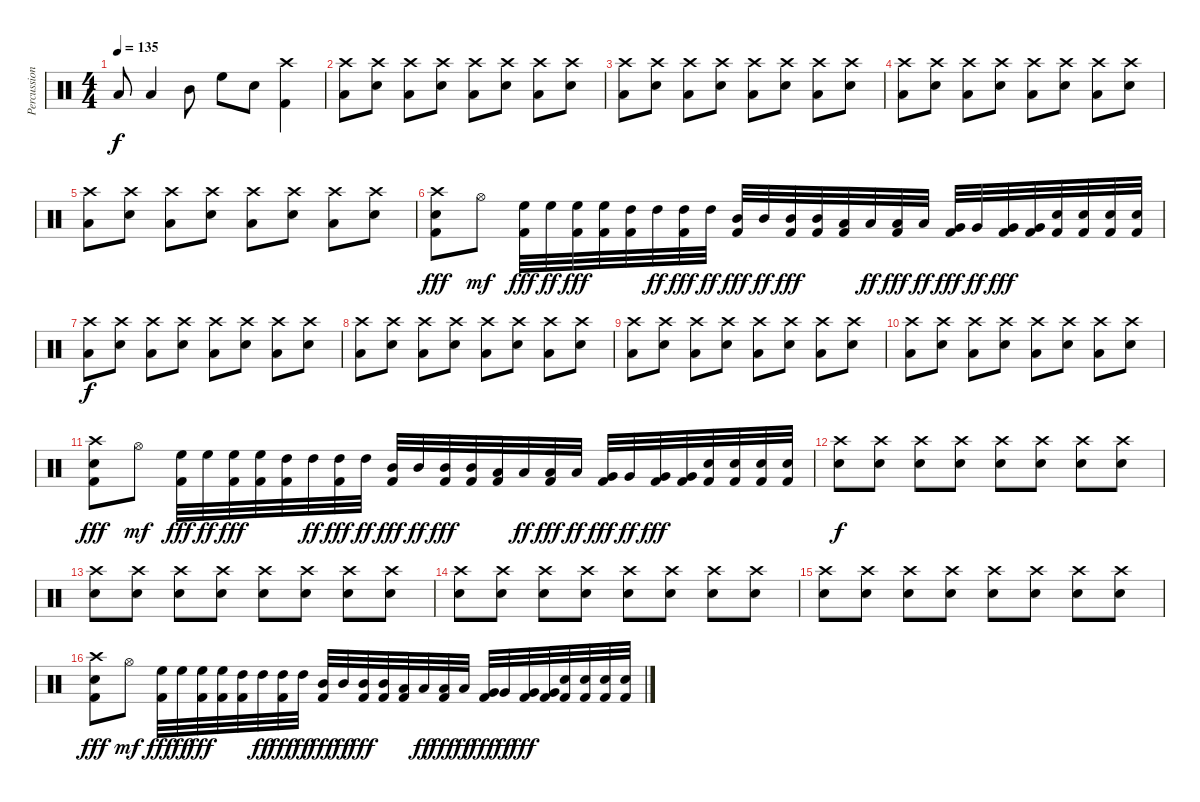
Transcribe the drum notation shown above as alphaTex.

\track ("Percussions" "Percussion") {instrument percussion}
\staff {score}
\articulation defaults
\ts (4 4)
\tempo 135
\clef neutral
\ks c "Low Floor Tom (hit)".8{dy f} "Low Tom (hit)".4 "Mid Tom (hit)".8 "High Floor Tom (hit)".8 "Electric Snare (hit)".8
("Crash high (hit)" "Kick (hit) 2").4 |
("Crash high (hit)" "Low Tom (hit)").8 ("Crash high (hit)" "Electric Snare (hit)").8 ("Crash high (hit)" "Low Tom (hit)").8 ("Crash high (hit)" "Electric Snare (hit)").8 ("Crash high (hit)" "Low Tom (hit)").8 ("Crash high (hit)" "Electric Snare (hit)").8 ("Crash high (hit)" "Low Tom (hit)").8 ("Crash high (hit)" "Electric Snare (hit)").8 |
("Crash high (hit)" "Low Tom (hit)").8 ("Crash high (hit)" "Electric Snare (hit)").8 ("Crash high (hit)" "Low Tom (hit)").8 ("Crash high (hit)" "Electric Snare (hit)").8 ("Crash high (hit)" "Low Tom (hit)").8 ("Crash high (hit)" "Electric Snare (hit)").8 ("Crash high (hit)" "Low Tom (hit)").8 ("Crash high (hit)" "Electric Snare (hit)").8 |
("Crash high (hit)" "Low Tom (hit)").8 ("Crash high (hit)" "Electric Snare (hit)").8 ("Crash high (hit)" "Low Tom (hit)").8 ("Crash high (hit)" "Electric Snare (hit)").8 ("Crash high (hit)" "Low Tom (hit)").8 ("Crash high (hit)" "Electric Snare (hit)").8 ("Crash high (hit)" "Low Tom (hit)").8 ("Crash high (hit)" "Electric Snare (hit)").8 |
("Crash high (hit)" "Low Tom (hit)").8 ("Crash high (hit)" "Electric Snare (hit)").8 ("Crash high (hit)" "Low Tom (hit)").8 ("Crash high (hit)" "Electric Snare (hit)").8 ("Crash high (hit)" "Low Tom (hit)").8 ("Crash high (hit)" "Electric Snare (hit)").8 ("Crash high (hit)" "Low Tom (hit)").8 ("Crash high (hit)" "Electric Snare (hit)").8 |
("Crash high (hit)" "Electric Snare (hit)" "Kick (hit) 2").8{dy fff} "Hi-Hat (open)".8{dy mf} ("High Floor Tom (hit)" "Kick (hit) 2").32{dy fff} "High Floor Tom (hit)".32{dy ff} ("High Floor Tom (hit)" "Kick (hit) 2").32{dy fff} ("High Floor Tom (hit)" "Kick (hit) 2").32 ("High Tom (hit)" "Kick (hit) 2").32 "High Tom (hit)".32{dy ff} ("High Tom (hit)" "Kick (hit) 2").32{dy fff} "High Tom (hit)".32{dy ff} ("Mid Tom (hit)" "Kick (hit) 2").32{dy fff} "Mid Tom (hit)".32{dy ff} ("Mid Tom (hit)" "Kick (hit) 2").32{dy fff} ("Mid Tom (hit)" "Kick (hit) 2").32 ("Low Tom (hit)" "Kick (hit) 2").32 "Low Tom (hit)".32{dy ff} ("Low Tom (hit)" "Kick (hit) 2").32{dy fff} "Low Tom (hit)".32{dy ff} ("Very Low Tom (hit)" "Kick (hit) 2").32{dy fff} "Very Low Tom (hit)".32{dy ff} ("Very Low Tom (hit)" "Kick (hit) 2").32{dy fff} ("Very Low Tom (hit)" "Kick (hit) 2").32 ("Electric Snare (hit)" "Kick (hit) 2").32 ("Electric Snare (hit)" "Kick (hit) 2").32 ("Electric Snare (hit)" "Kick (hit) 2").32 ("Electric Snare (hit)" "Kick (hit) 2").32 |
("Crash high (hit)" "Low Floor Tom (hit)").8{dy f} ("Crash high (hit)" "Electric Snare (hit)").8 ("Crash high (hit)" "Low Floor Tom (hit)").8 ("Crash high (hit)" "Electric Snare (hit)").8 ("Crash high (hit)" "Low Floor Tom (hit)").8 ("Crash high (hit)" "Electric Snare (hit)").8 ("Crash high (hit)" "Low Floor Tom (hit)").8 ("Crash high (hit)" "Electric Snare (hit)").8 |
("Crash high (hit)" "Low Floor Tom (hit)").8 ("Crash high (hit)" "Electric Snare (hit)").8 ("Crash high (hit)" "Low Floor Tom (hit)").8 ("Crash high (hit)" "Electric Snare (hit)").8 ("Crash high (hit)" "Low Floor Tom (hit)").8 ("Crash high (hit)" "Electric Snare (hit)").8 ("Crash high (hit)" "Low Floor Tom (hit)").8 ("Crash high (hit)" "Electric Snare (hit)").8 |
("Crash high (hit)" "Low Floor Tom (hit)").8 ("Crash high (hit)" "Electric Snare (hit)").8 ("Crash high (hit)" "Low Floor Tom (hit)").8 ("Crash high (hit)" "Electric Snare (hit)").8 ("Crash high (hit)" "Low Floor Tom (hit)").8 ("Crash high (hit)" "Electric Snare (hit)").8 ("Crash high (hit)" "Low Floor Tom (hit)").8 ("Crash high (hit)" "Electric Snare (hit)").8 |
("Crash high (hit)" "Low Floor Tom (hit)").8 ("Crash high (hit)" "Electric Snare (hit)").8 ("Crash high (hit)" "Low Floor Tom (hit)").8 ("Crash high (hit)" "Electric Snare (hit)").8 ("Crash high (hit)" "Low Floor Tom (hit)").8 ("Crash high (hit)" "Electric Snare (hit)").8 ("Crash high (hit)" "Low Floor Tom (hit)").8 ("Crash high (hit)" "Electric Snare (hit)").8 |
("Crash high (hit)" "Electric Snare (hit)" "Kick (hit) 2").8{dy fff} "Hi-Hat (open)".8{dy mf} ("High Floor Tom (hit)" "Kick (hit) 2").32{dy fff} "High Floor Tom (hit)".32{dy ff} ("High Floor Tom (hit)" "Kick (hit) 2").32{dy fff} ("High Floor Tom (hit)" "Kick (hit) 2").32 ("High Tom (hit)" "Kick (hit) 2").32 "High Tom (hit)".32{dy ff} ("High Tom (hit)" "Kick (hit) 2").32{dy fff} "High Tom (hit)".32{dy ff} ("Mid Tom (hit)" "Kick (hit) 2").32{dy fff} "Mid Tom (hit)".32{dy ff} ("Mid Tom (hit)" "Kick (hit) 2").32{dy fff} ("Mid Tom (hit)" "Kick (hit) 2").32 ("Low Tom (hit)" "Kick (hit) 2").32 "Low Tom (hit)".32{dy ff} ("Low Tom (hit)" "Kick (hit) 2").32{dy fff} "Low Tom (hit)".32{dy ff} ("Very Low Tom (hit)" "Kick (hit) 2").32{dy fff} "Very Low Tom (hit)".32{dy ff} ("Very Low Tom (hit)" "Kick (hit) 2").32{dy fff} ("Very Low Tom (hit)" "Kick (hit) 2").32 ("Electric Snare (hit)" "Kick (hit) 2").32 ("Electric Snare (hit)" "Kick (hit) 2").32 ("Electric Snare (hit)" "Kick (hit) 2").32 ("Electric Snare (hit)" "Kick (hit) 2").32 |
("Crash high (hit)" "Snare (hit) 2").8{dy f} ("Crash high (hit)" "Electric Snare (hit)").8 ("Crash high (hit)" "Snare (hit) 2").8 ("Crash high (hit)" "Electric Snare (hit)").8 ("Crash high (hit)" "Snare (hit) 2").8 ("Crash high (hit)" "Electric Snare (hit)").8 ("Crash high (hit)" "Snare (hit) 2").8 ("Crash high (hit)" "Electric Snare (hit)").8 |
("Crash high (hit)" "Snare (hit) 2").8 ("Crash high (hit)" "Electric Snare (hit)").8 ("Crash high (hit)" "Snare (hit) 2").8 ("Crash high (hit)" "Electric Snare (hit)").8 ("Crash high (hit)" "Snare (hit) 2").8 ("Crash high (hit)" "Electric Snare (hit)").8 ("Crash high (hit)" "Snare (hit) 2").8 ("Crash high (hit)" "Electric Snare (hit)").8 |
("Crash high (hit)" "Snare (hit) 2").8 ("Crash high (hit)" "Electric Snare (hit)").8 ("Crash high (hit)" "Snare (hit) 2").8 ("Crash high (hit)" "Electric Snare (hit)").8 ("Crash high (hit)" "Snare (hit) 2").8 ("Crash high (hit)" "Electric Snare (hit)").8 ("Crash high (hit)" "Snare (hit) 2").8 ("Crash high (hit)" "Electric Snare (hit)").8 |
("Crash high (hit)" "Snare (hit) 2").8 ("Crash high (hit)" "Electric Snare (hit)").8 ("Crash high (hit)" "Snare (hit) 2").8 ("Crash high (hit)" "Electric Snare (hit)").8 ("Crash high (hit)" "Snare (hit) 2").8 ("Crash high (hit)" "Electric Snare (hit)").8 ("Crash high (hit)" "Snare (hit) 2").8 ("Crash high (hit)" "Electric Snare (hit)").8 |
("Crash high (hit)" "Electric Snare (hit)" "Kick (hit) 2").8{dy fff} "Hi-Hat (open)".8{dy mf} ("High Floor Tom (hit)" "Kick (hit) 2").32{dy fff} "High Floor Tom (hit)".32{dy ff} ("High Floor Tom (hit)" "Kick (hit) 2").32{dy fff} ("High Floor Tom (hit)" "Kick (hit) 2").32 ("High Tom (hit)" "Kick (hit) 2").32 "High Tom (hit)".32{dy ff} ("High Tom (hit)" "Kick (hit) 2").32{dy fff} "High Tom (hit)".32{dy ff} ("Mid Tom (hit)" "Kick (hit) 2").32{dy fff} "Mid Tom (hit)".32{dy ff} ("Mid Tom (hit)" "Kick (hit) 2").32{dy fff} ("Mid Tom (hit)" "Kick (hit) 2").32 ("Low Tom (hit)" "Kick (hit) 2").32 "Low Tom (hit)".32{dy ff} ("Low Tom (hit)" "Kick (hit) 2").32{dy fff} "Low Tom (hit)".32{dy ff} ("Very Low Tom (hit)" "Kick (hit) 2").32{dy fff} "Very Low Tom (hit)".32{dy ff} ("Very Low Tom (hit)" "Kick (hit) 2").32{dy fff} ("Very Low Tom (hit)" "Kick (hit) 2").32 ("Electric Snare (hit)" "Kick (hit) 2").32 ("Electric Snare (hit)" "Kick (hit) 2").32 ("Electric Snare (hit)" "Kick (hit) 2").32 ("Electric Snare (hit)" "Kick (hit) 2").32
